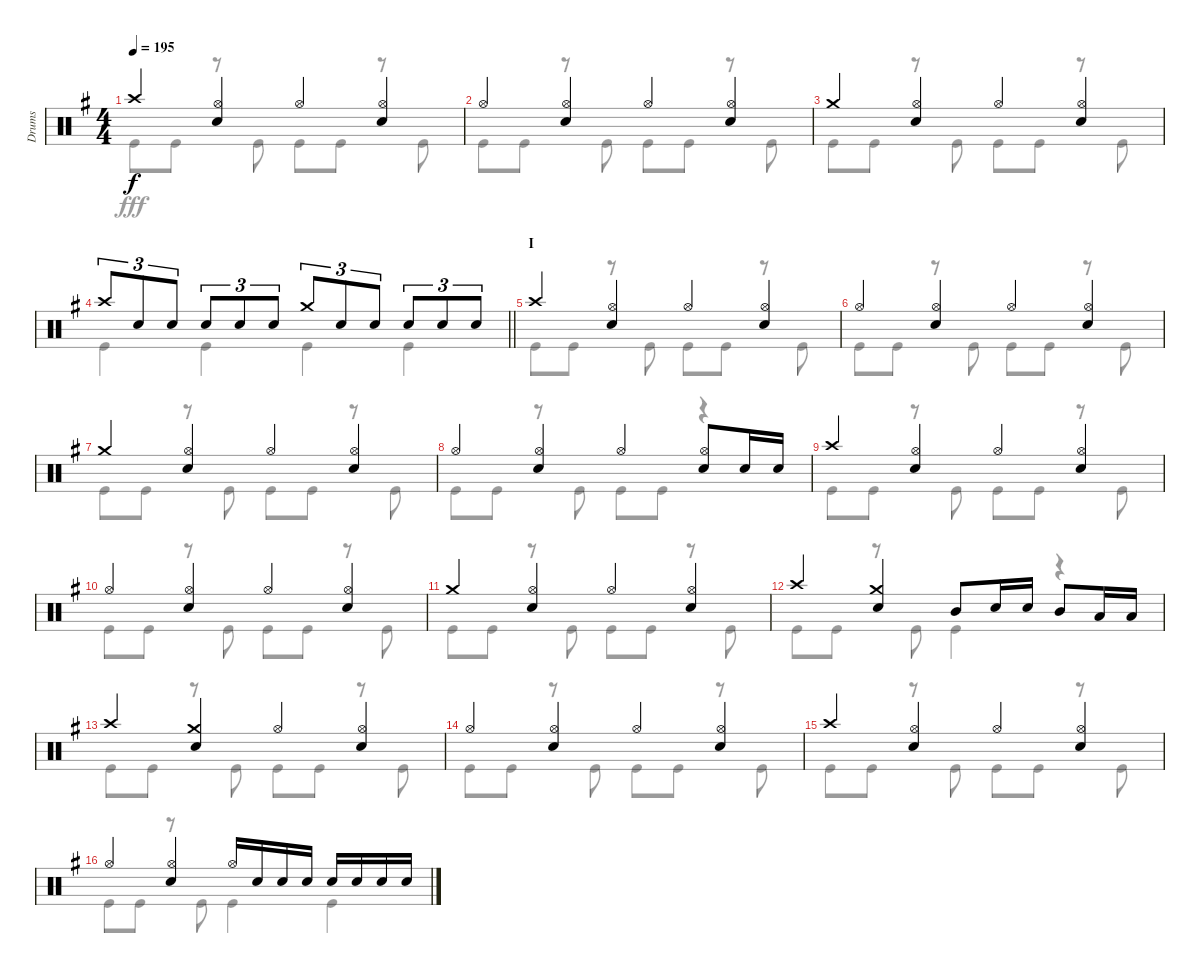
\track ("Drums" "Drums") {instrument percussion}
\staff {score}
\articulation defaults
\voice
\ts (4 4)
\tempo 195
\clef neutral
\ks g "Crash high (hit)".4{dy f}
("Hi-Hat (open)" "Snare (hit) 2").4 "Hi-Hat (open)".4 ("Hi-Hat (open)" "Snare (hit) 2").4 |
"Hi-Hat (open)".4 ("Hi-Hat (open)" "Snare (hit) 2").4 "Hi-Hat (open)".4 ("Hi-Hat (open)" "Snare (hit) 2").4 |
"Crash medium (hit)".4 ("Hi-Hat (open)" "Snare (hit) 2").4 "Hi-Hat (open)".4 ("Hi-Hat (open)" "Snare (hit) 2").4 |
\barLineRight lightlight "Crash high (hit)".8{tu (3 2)} "Snare (hit) 2".8{tu (3 2)} "Snare (hit) 2".8{tu (3 2)} "Snare (hit) 2".8{tu (3 2)} "Snare (hit) 2".8{tu (3 2)} "Snare (hit) 2".8{tu (3 2)} "Crash medium (hit)".8{tu (3 2)} "Snare (hit) 2".8{tu (3 2)} "Snare (hit) 2".8{tu (3 2)} "Snare (hit) 2".8{tu (3 2)} "Snare (hit) 2".8{tu (3 2)} "Snare (hit) 2".8{tu (3 2)}
|
\section ("" "I")
"Crash high (hit)".4 ("Hi-Hat (open)" "Snare (hit) 2").4 "Hi-Hat (open)".4 ("Hi-Hat (open)" "Snare (hit) 2").4 |
"Hi-Hat (open)".4 ("Hi-Hat (open)" "Snare (hit) 2").4 "Hi-Hat (open)".4 ("Hi-Hat (open)" "Snare (hit) 2").4 |
"Crash medium (hit)".4 ("Hi-Hat (open)" "Snare (hit) 2").4 "Hi-Hat (open)".4 ("Hi-Hat (open)" "Snare (hit) 2").4 |
"Hi-Hat (open)".4 ("Hi-Hat (open)" "Snare (hit) 2").4 "Hi-Hat (open)".4 ("Hi-Hat (open)" "Snare (hit) 2").8 "Snare (hit) 2".16 "Snare (hit) 2".16 |
"Crash high (hit)".4 ("Hi-Hat (open)" "Snare (hit) 2").4 "Hi-Hat (open)".4 ("Hi-Hat (open)" "Snare (hit) 2").4 |
"Hi-Hat (open)".4 ("Hi-Hat (open)" "Snare (hit) 2").4 "Hi-Hat (open)".4 ("Hi-Hat (open)" "Snare (hit) 2").4 |
"Crash medium (hit)".4 ("Hi-Hat (open)" "Snare (hit) 2").4 "Hi-Hat (open)".4 ("Hi-Hat (open)" "Snare (hit) 2").4 |
"Crash high (hit)".4 ("Crash medium (hit)" "Snare (hit) 2").4 "Mid Tom (hit)".8 "Snare (hit) 2".16 "Snare (hit) 2".16 "Mid Tom (hit)".8 "Low Tom (hit)".16 "Low Tom (hit)".16 |
"Crash high (hit)".4 ("Crash medium (hit)" "Snare (hit) 2").4 "Hi-Hat (open)".4 ("Hi-Hat (open)" "Snare (hit) 2").4 |
"Hi-Hat (open)".4 ("Hi-Hat (open)" "Snare (hit) 2").4 "Hi-Hat (open)".4 ("Hi-Hat (open)" "Snare (hit) 2").4 |
"Crash high (hit)".4 ("Hi-Hat (open)" "Snare (hit) 2").4 "Hi-Hat (open)".4 ("Hi-Hat (open)" "Snare (hit) 2").4 |
"Hi-Hat (open)".4 ("Hi-Hat (open)" "Snare (hit) 2").4 "Hi-Hat (open)".16 "Snare (hit) 2".16 "Snare (hit) 2".16 "Snare (hit) 2".16 "Snare (hit) 2".16 "Snare (hit) 2".16 "Snare (hit) 2".16 "Snare (hit) 2".16
\voice
\clef neutral
\ottava regular
\simile none
\ks g "Kick (hit)".8{dy fff} "Kick (hit)".8
r.8 "Kick (hit)".8 "Kick (hit)".8 "Kick (hit)".8 r.8 "Kick (hit)".8 |
"Kick (hit)".8 "Kick (hit)".8 r.8 "Kick (hit)".8 "Kick (hit)".8 "Kick (hit)".8 r.8 "Kick (hit)".8 |
"Kick (hit)".8 "Kick (hit)".8 r.8 "Kick (hit)".8 "Kick (hit)".8 "Kick (hit)".8 r.8 "Kick (hit)".8 |
\barLineRight lightlight "Kick (hit)".4 "Kick (hit)".4 "Kick (hit)".4 "Kick (hit)".4
|
"Kick (hit)".8 "Kick (hit)".8 r.8 "Kick (hit)".8 "Kick (hit)".8 "Kick (hit)".8 r.8 "Kick (hit)".8 |
"Kick (hit)".8 "Kick (hit)".8 r.8 "Kick (hit)".8 "Kick (hit)".8 "Kick (hit)".8 r.8 "Kick (hit)".8 |
"Kick (hit)".8 "Kick (hit)".8 r.8 "Kick (hit)".8 "Kick (hit)".8 "Kick (hit)".8 r.8 "Kick (hit)".8 |
"Kick (hit)".8 "Kick (hit)".8 r.8 "Kick (hit)".8 "Kick (hit)".8 "Kick (hit)".8 r.4 |
"Kick (hit)".8 "Kick (hit)".8 r.8 "Kick (hit)".8 "Kick (hit)".8 "Kick (hit)".8 r.8 "Kick (hit)".8 |
"Kick (hit)".8 "Kick (hit)".8 r.8 "Kick (hit)".8 "Kick (hit)".8 "Kick (hit)".8 r.8 "Kick (hit)".8 |
"Kick (hit)".8 "Kick (hit)".8 r.8 "Kick (hit)".8 "Kick (hit)".8 "Kick (hit)".8 r.8 "Kick (hit)".8 |
"Kick (hit)".8 "Kick (hit)".8 r.8 "Kick (hit)".8 "Kick (hit)".4 r.4 |
"Kick (hit)".8 "Kick (hit)".8 r.8 "Kick (hit)".8 "Kick (hit)".8 "Kick (hit)".8 r.8 "Kick (hit)".8 |
"Kick (hit)".8 "Kick (hit)".8 r.8 "Kick (hit)".8 "Kick (hit)".8 "Kick (hit)".8 r.8 "Kick (hit)".8 |
"Kick (hit)".8 "Kick (hit)".8 r.8 "Kick (hit)".8 "Kick (hit)".8 "Kick (hit)".8 r.8 "Kick (hit)".8 |
"Kick (hit)".8 "Kick (hit)".8 r.8 "Kick (hit)".8 "Kick (hit)".4 "Kick (hit)".4
